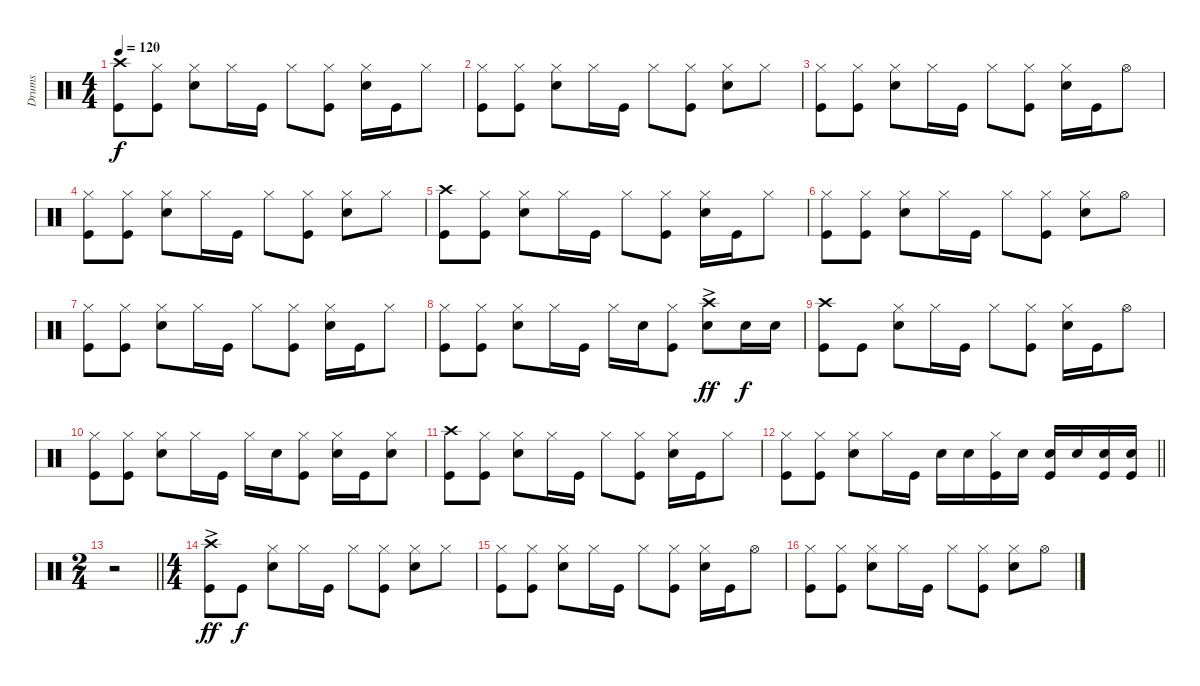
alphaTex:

\track ("Drums" "Drums") {instrument percussion}
\staff {score}
\articulation defaults
\ts (4 4)
\tempo 120
\clef neutral
\ks c
("Kick (hit)" "Crash high (hit)").8{dy f} ("Hi-Hat (closed)" "Kick (hit)").8 ("Hi-Hat (closed)" "Snare (hit) 2").8 "Hi-Hat (closed)".16 "Kick (hit)".16 "Hi-Hat (closed)".8 ("Hi-Hat (closed)" "Kick (hit)").8 ("Snare (hit) 2" "Hi-Hat (closed)").16 "Kick (hit)".16 "Hi-Hat (closed)".8 |
("Kick (hit)" "Hi-Hat (closed)").8 ("Kick (hit)" "Hi-Hat (closed)").8 ("Snare (hit) 2" "Hi-Hat (closed)").8 "Hi-Hat (closed)".16 "Kick (hit)".16 "Hi-Hat (closed)".8 ("Kick (hit)" "Hi-Hat (closed)").8 ("Snare (hit) 2" "Hi-Hat (closed)").8 "Hi-Hat (closed)".8 |
("Hi-Hat (closed)" "Kick (hit)").8 ("Hi-Hat (closed)" "Kick (hit)").8 ("Hi-Hat (closed)" "Snare (hit) 2").8 "Hi-Hat (closed)".16 "Kick (hit)".16 "Hi-Hat (closed)".8 ("Hi-Hat (closed)" "Kick (hit)").8 ("Snare (hit) 2" "Hi-Hat (closed)").16 "Kick (hit)".16 "Hi-Hat (open)".8 |
("Kick (hit)" "Hi-Hat (closed)").8 ("Kick (hit)" "Hi-Hat (closed)").8 ("Snare (hit) 2" "Hi-Hat (closed)").8 "Hi-Hat (closed)".16 "Kick (hit)".16 "Hi-Hat (closed)".8 ("Kick (hit)" "Hi-Hat (closed)").8 ("Snare (hit) 2" "Hi-Hat (closed)").8 "Hi-Hat (closed)".8 |
("Kick (hit)" "Crash high (hit)").8 ("Hi-Hat (closed)" "Kick (hit)").8 ("Hi-Hat (closed)" "Snare (hit) 2").8 "Hi-Hat (closed)".16 "Kick (hit)".16 "Hi-Hat (closed)".8 ("Hi-Hat (closed)" "Kick (hit)").8 ("Snare (hit) 2" "Hi-Hat (closed)").16 "Kick (hit)".16 "Hi-Hat (closed)".8 |
("Hi-Hat (closed)" "Kick (hit)").8 ("Hi-Hat (closed)" "Kick (hit)").8 ("Hi-Hat (closed)" "Snare (hit) 2").8 "Hi-Hat (closed)".16 "Kick (hit)".16 "Hi-Hat (closed)".8 ("Hi-Hat (closed)" "Kick (hit)").8 ("Snare (hit) 2" "Hi-Hat (closed)").8 "Hi-Hat (open)".8 |
("Hi-Hat (closed)" "Kick (hit)").8 ("Hi-Hat (closed)" "Kick (hit)").8 ("Hi-Hat (closed)" "Snare (hit) 2").8 "Hi-Hat (closed)".16 "Kick (hit)".16 "Hi-Hat (closed)".8 ("Hi-Hat (closed)" "Kick (hit)").8 ("Snare (hit) 2" "Hi-Hat (closed)").16 "Kick (hit)".16 "Hi-Hat (closed)".8 |
("Hi-Hat (closed)" "Kick (hit)").8 ("Hi-Hat (closed)" "Kick (hit)").8 ("Hi-Hat (closed)" "Snare (hit) 2").8 "Hi-Hat (closed)".16 "Kick (hit)".16 "Hi-Hat (closed)".16 "Snare (hit) 2".16 ("Hi-Hat (closed)" "Kick (hit)").8 ("Crash high (hit)" "Snare (hit) 2"{ac}).8{dy ff} "Snare (hit) 2".16{dy f} "Snare (hit) 2".16 |
("Crash high (hit)" "Kick (hit)").8 "Kick (hit)".8 ("Snare (hit) 2" "Hi-Hat (closed)").8 "Hi-Hat (closed)".16 "Kick (hit)".16 "Hi-Hat (closed)".8 ("Kick (hit)" "Hi-Hat (closed)").8 ("Snare (hit) 2" "Hi-Hat (closed)").16 "Kick (hit)".16 "Hi-Hat (open)".8 |
("Hi-Hat (closed)" "Kick (hit)").8 ("Hi-Hat (closed)" "Kick (hit)").8 ("Snare (hit) 2" "Hi-Hat (closed)").8 "Hi-Hat (closed)".16 "Kick (hit)".16 "Hi-Hat (closed)".16 "Snare (hit) 2".16 ("Hi-Hat (closed)" "Kick (hit)").8 ("Hi-Hat (closed)" "Snare (hit) 2").16 "Kick (hit)".16 ("Hi-Hat (closed)" "Snare (hit) 2").8 |
("Kick (hit)" "Crash high (hit)").8 ("Hi-Hat (closed)" "Kick (hit)").8 ("Hi-Hat (closed)" "Snare (hit) 2").8 "Hi-Hat (closed)".16 "Kick (hit)".16 "Hi-Hat (closed)".8 ("Hi-Hat (closed)" "Kick (hit)").8 ("Snare (hit) 2" "Hi-Hat (closed)").16 "Kick (hit)".16 "Hi-Hat (closed)".8 |
\barLineRight lightlight
("Hi-Hat (closed)" "Kick (hit)").8 ("Hi-Hat (closed)" "Kick (hit)").8 ("Hi-Hat (closed)" "Snare (hit) 2").8 "Hi-Hat (closed)".16 "Kick (hit)".16 "Snare (hit) 2".16 "Snare (hit) 2".16 ("Hi-Hat (closed)" "Kick (hit)").16 "Snare (hit) 2".16 ("Snare (hit) 2" "Kick (hit)").16 "Snare (hit) 2".16 ("Snare (hit) 2" "Kick (hit)").16 ("Snare (hit) 2" "Kick (hit)").16 |
\ts (2 4)
\barLineRight lightlight
r.2 |
\ts (4 4)
("Crash high (hit)"{ac} "Kick (hit)").8{dy ff} "Kick (hit)".8{dy f} ("Snare (hit) 2" "Hi-Hat (closed)").8 "Hi-Hat (closed)".16 "Kick (hit)".16 "Hi-Hat (closed)".8 ("Kick (hit)" "Hi-Hat (closed)").8 ("Snare (hit) 2" "Hi-Hat (closed)").8 "Hi-Hat (closed)".8 |
("Hi-Hat (closed)" "Kick (hit)").8 ("Hi-Hat (closed)" "Kick (hit)").8 ("Hi-Hat (closed)" "Snare (hit) 2").8 "Hi-Hat (closed)".16 "Kick (hit)".16 "Hi-Hat (closed)".8 ("Hi-Hat (closed)" "Kick (hit)").8 ("Snare (hit) 2" "Hi-Hat (closed)").16 "Kick (hit)".16 "Hi-Hat (open)".8 |
("Hi-Hat (closed)" "Kick (hit)").8 ("Hi-Hat (closed)" "Kick (hit)").8 ("Hi-Hat (closed)" "Snare (hit) 2").8 "Hi-Hat (closed)".16 "Kick (hit)".16 "Hi-Hat (closed)".8 ("Hi-Hat (closed)" "Kick (hit)").8 ("Snare (hit) 2" "Hi-Hat (closed)").8 "Hi-Hat (open)".8
